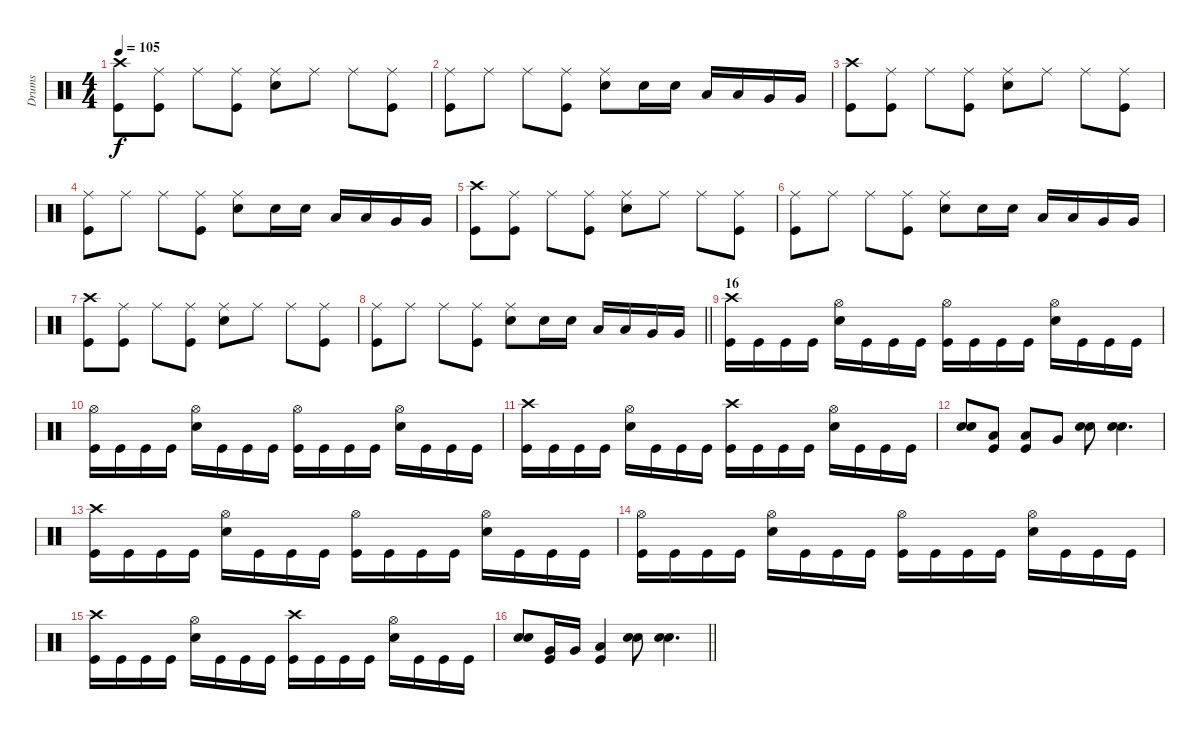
\track ("Drums" "Drums") {instrument percussion}
\staff
\articulation defaults
\ts (4 4)
\tempo 105
\clef neutral
\ks c
("Crash high (hit)" "Kick (hit)").8{dy f} ("Ride (middle)" "Kick (hit)").8 "Ride (middle)".8 ("Ride (middle)" "Kick (hit)").8 ("Ride (middle)" "Electric Snare (hit)").8 "Ride (middle)".8 "Ride (middle)".8 ("Ride (middle)" "Kick (hit)").8 |
("Ride (middle)" "Kick (hit)").8 "Ride (middle)".8 "Ride (middle)".8 ("Ride (middle)" "Kick (hit)").8 ("Ride (middle)" "Electric Snare (hit)").8 "Electric Snare (hit)".16 "Electric Snare (hit)".16 "Low Tom (hit)".16 "Low Tom (hit)".16 "Very Low Tom (hit)".16 "Very Low Tom (hit)".16 |
("Crash high (hit)" "Kick (hit)").8 ("Ride (middle)" "Kick (hit)").8 "Ride (middle)".8 ("Ride (middle)" "Kick (hit)").8 ("Ride (middle)" "Electric Snare (hit)").8 "Ride (middle)".8 "Ride (middle)".8 ("Ride (middle)" "Kick (hit)").8 |
("Ride (middle)" "Kick (hit)").8 "Ride (middle)".8 "Ride (middle)".8 ("Ride (middle)" "Kick (hit)").8 ("Ride (middle)" "Electric Snare (hit)").8 "Electric Snare (hit)".16 "Electric Snare (hit)".16 "Low Tom (hit)".16 "Low Tom (hit)".16 "Very Low Tom (hit)".16 "Very Low Tom (hit)".16 |
("Crash high (hit)" "Kick (hit)").8 ("Ride (middle)" "Kick (hit)").8 "Ride (middle)".8 ("Ride (middle)" "Kick (hit)").8 ("Ride (middle)" "Electric Snare (hit)").8 "Ride (middle)".8 "Ride (middle)".8 ("Ride (middle)" "Kick (hit)").8 |
("Ride (middle)" "Kick (hit)").8 "Ride (middle)".8 "Ride (middle)".8 ("Ride (middle)" "Kick (hit)").8 ("Ride (middle)" "Electric Snare (hit)").8 "Electric Snare (hit)".16 "Electric Snare (hit)".16 "Low Tom (hit)".16 "Low Tom (hit)".16 "Very Low Tom (hit)".16 "Very Low Tom (hit)".16 |
("Crash high (hit)" "Kick (hit)").8 ("Ride (middle)" "Kick (hit)").8 "Ride (middle)".8 ("Ride (middle)" "Kick (hit)").8 ("Ride (middle)" "Electric Snare (hit)").8 "Ride (middle)".8 "Ride (middle)".8 ("Ride (middle)" "Kick (hit)").8 |
\barLineRight lightlight
("Ride (middle)" "Kick (hit)").8 "Ride (middle)".8 "Ride (middle)".8 ("Ride (middle)" "Kick (hit)").8 ("Ride (middle)" "Electric Snare (hit)").8 "Electric Snare (hit)".16 "Electric Snare (hit)".16 "Low Tom (hit)".16 "Low Tom (hit)".16 "Very Low Tom (hit)".16 "Very Low Tom (hit)".16 |
\section ("" "16")
("Crash high (hit)" "Kick (hit)").16 "Kick (hit)".16 "Kick (hit)".16 "Kick (hit)".16 ("Hi-Hat (open)" "Electric Snare (hit)").16 "Kick (hit)".16 "Kick (hit)".16 "Kick (hit)".16 ("Hi-Hat (open)" "Kick (hit)").16 "Kick (hit)".16 "Kick (hit)".16 "Kick (hit)".16 ("Hi-Hat (open)" "Electric Snare (hit)").16 "Kick (hit)".16 "Kick (hit)".16 "Kick (hit)".16 |
("Hi-Hat (open)" "Kick (hit)").16 "Kick (hit)".16 "Kick (hit)".16 "Kick (hit)".16 ("Hi-Hat (open)" "Electric Snare (hit)").16 "Kick (hit)".16 "Kick (hit)".16 "Kick (hit)".16 ("Hi-Hat (open)" "Kick (hit)").16 "Kick (hit)".16 "Kick (hit)".16 "Kick (hit)".16 ("Hi-Hat (open)" "Electric Snare (hit)").16 "Kick (hit)".16 "Kick (hit)".16 "Kick (hit)".16 |
("Crash high (hit)" "Kick (hit)").16 "Kick (hit)".16 "Kick (hit)".16 "Kick (hit)".16 ("Hi-Hat (open)" "Electric Snare (hit)").16 "Kick (hit)".16 "Kick (hit)".16 "Kick (hit)".16 ("Crash high (hit)" "Kick (hit)").16 "Kick (hit)".16 "Kick (hit)".16 "Kick (hit)".16 ("Hi-Hat (open)" "Electric Snare (hit)").16 "Kick (hit)".16 "Kick (hit)".16 "Kick (hit)".16 |
("Snare (hit) 2" "Electric Snare (hit)").8 ("Low Floor Tom (hit)" "Kick (hit)").8 ("Low Floor Tom (hit)" "Kick (hit)").8 "Very Low Tom (hit)".8 ("Snare (hit) 2" "Electric Snare (hit)").8 ("Snare (hit) 2" "Electric Snare (hit)").4{d} |
("Crash high (hit)" "Kick (hit)").16 "Kick (hit)".16 "Kick (hit)".16 "Kick (hit)".16 ("Hi-Hat (open)" "Electric Snare (hit)").16 "Kick (hit)".16 "Kick (hit)".16 "Kick (hit)".16 ("Hi-Hat (open)" "Kick (hit)").16 "Kick (hit)".16 "Kick (hit)".16 "Kick (hit)".16 ("Hi-Hat (open)" "Electric Snare (hit)").16 "Kick (hit)".16 "Kick (hit)".16 "Kick (hit)".16 |
("Hi-Hat (open)" "Kick (hit)").16 "Kick (hit)".16 "Kick (hit)".16 "Kick (hit)".16 ("Hi-Hat (open)" "Electric Snare (hit)").16 "Kick (hit)".16 "Kick (hit)".16 "Kick (hit)".16 ("Hi-Hat (open)" "Kick (hit)").16 "Kick (hit)".16 "Kick (hit)".16 "Kick (hit)".16 ("Hi-Hat (open)" "Electric Snare (hit)").16 "Kick (hit)".16 "Kick (hit)".16 "Kick (hit)".16 |
("Crash high (hit)" "Kick (hit)").16 "Kick (hit)".16 "Kick (hit)".16 "Kick (hit)".16 ("Hi-Hat (open)" "Electric Snare (hit)").16 "Kick (hit)".16 "Kick (hit)".16 "Kick (hit)".16 ("Crash high (hit)" "Kick (hit)").16 "Kick (hit)".16 "Kick (hit)".16 "Kick (hit)".16 ("Hi-Hat (open)" "Electric Snare (hit)").16 "Kick (hit)".16 "Kick (hit)".16 "Kick (hit)".16 |
\barLineRight lightlight
("Snare (hit) 2" "Electric Snare (hit)").8 ("Very Low Tom (hit)" "Kick (hit)").16 "Very Low Tom (hit)".16 ("Low Floor Tom (hit)" "Kick (hit)").4 ("Snare (hit) 2" "Electric Snare (hit)").8 ("Snare (hit) 2" "Electric Snare (hit)").4{d}
